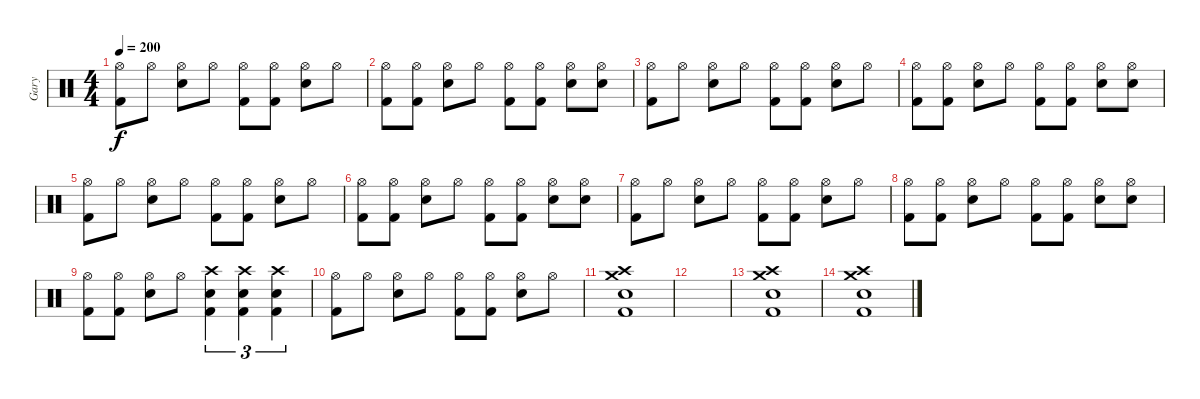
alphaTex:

\track ("Gary" "Gary") {instrument percussion}
\staff {score}
\articulation defaults
\ts (4 4)
\tempo 200
\clef neutral
\ks c
("Hi-Hat (open)" "Kick (hit) 2").8{dy f} "Hi-Hat (open)".8 ("Hi-Hat (open)" "Electric Snare (hit)").8 "Hi-Hat (open)".8 ("Hi-Hat (open)" "Kick (hit) 2").8 ("Hi-Hat (open)" "Kick (hit) 2").8 ("Hi-Hat (open)" "Electric Snare (hit)").8 "Hi-Hat (open)".8 |
("Hi-Hat (open)" "Kick (hit) 2").8 ("Hi-Hat (open)" "Kick (hit) 2").8 ("Hi-Hat (open)" "Electric Snare (hit)").8 "Hi-Hat (open)".8 ("Hi-Hat (open)" "Kick (hit) 2").8 ("Hi-Hat (open)" "Kick (hit) 2").8 ("Hi-Hat (open)" "Electric Snare (hit)").8 ("Hi-Hat (open)" "Electric Snare (hit)").8 |
("Hi-Hat (open)" "Kick (hit) 2").8 "Hi-Hat (open)".8 ("Hi-Hat (open)" "Electric Snare (hit)").8 "Hi-Hat (open)".8 ("Hi-Hat (open)" "Kick (hit) 2").8 ("Hi-Hat (open)" "Kick (hit) 2").8 ("Hi-Hat (open)" "Electric Snare (hit)").8 "Hi-Hat (open)".8 |
("Hi-Hat (open)" "Kick (hit) 2").8 ("Hi-Hat (open)" "Kick (hit) 2").8 ("Hi-Hat (open)" "Electric Snare (hit)").8 "Hi-Hat (open)".8 ("Hi-Hat (open)" "Kick (hit) 2").8 ("Hi-Hat (open)" "Kick (hit) 2").8 ("Hi-Hat (open)" "Electric Snare (hit)").8 ("Hi-Hat (open)" "Electric Snare (hit)").8 |
("Hi-Hat (open)" "Kick (hit) 2").8 "Hi-Hat (open)".8 ("Hi-Hat (open)" "Electric Snare (hit)").8 "Hi-Hat (open)".8 ("Hi-Hat (open)" "Kick (hit) 2").8 ("Hi-Hat (open)" "Kick (hit) 2").8 ("Hi-Hat (open)" "Electric Snare (hit)").8 "Hi-Hat (open)".8 |
("Hi-Hat (open)" "Kick (hit) 2").8 ("Hi-Hat (open)" "Kick (hit) 2").8 ("Hi-Hat (open)" "Electric Snare (hit)").8 "Hi-Hat (open)".8 ("Hi-Hat (open)" "Kick (hit) 2").8 ("Hi-Hat (open)" "Kick (hit) 2").8 ("Hi-Hat (open)" "Electric Snare (hit)").8 ("Hi-Hat (open)" "Electric Snare (hit)").8 |
("Hi-Hat (open)" "Kick (hit) 2").8 "Hi-Hat (open)".8 ("Hi-Hat (open)" "Electric Snare (hit)").8 "Hi-Hat (open)".8 ("Hi-Hat (open)" "Kick (hit) 2").8 ("Hi-Hat (open)" "Kick (hit) 2").8 ("Hi-Hat (open)" "Electric Snare (hit)").8 "Hi-Hat (open)".8 |
("Hi-Hat (open)" "Kick (hit) 2").8 ("Hi-Hat (open)" "Kick (hit) 2").8 ("Hi-Hat (open)" "Electric Snare (hit)").8 "Hi-Hat (open)".8 ("Hi-Hat (open)" "Kick (hit) 2").8 ("Hi-Hat (open)" "Kick (hit) 2").8 ("Hi-Hat (open)" "Electric Snare (hit)").8 ("Hi-Hat (open)" "Electric Snare (hit)").8 |
("Hi-Hat (open)" "Kick (hit) 2").8 ("Hi-Hat (open)" "Kick (hit) 2").8 ("Hi-Hat (open)" "Electric Snare (hit)").8 "Hi-Hat (open)".8 ("Crash high (hit)" "Electric Snare (hit)" "Kick (hit) 2").4{tu (3 2)} ("Crash high (hit)" "Electric Snare (hit)" "Kick (hit) 2").4{tu (3 2)} ("Crash high (hit)" "Electric Snare (hit)" "Kick (hit) 2").4{tu (3 2)} |
("Hi-Hat (open)" "Kick (hit) 2").8 "Hi-Hat (open)".8 ("Hi-Hat (open)" "Electric Snare (hit)").8 "Hi-Hat (open)".8 ("Hi-Hat (open)" "Kick (hit) 2").8 ("Hi-Hat (open)" "Kick (hit) 2").8 ("Hi-Hat (open)" "Electric Snare (hit)").8 "Hi-Hat (open)".8 |
("Crash high (hit)" "Crash medium (hit)" "Electric Snare (hit)" "Kick (hit) 2").1 |
|
("Crash high (hit)" "Crash medium (hit)" "Electric Snare (hit)" "Kick (hit) 2").1 |
("Crash high (hit)" "Crash medium (hit)" "Electric Snare (hit)" "Kick (hit) 2").1
